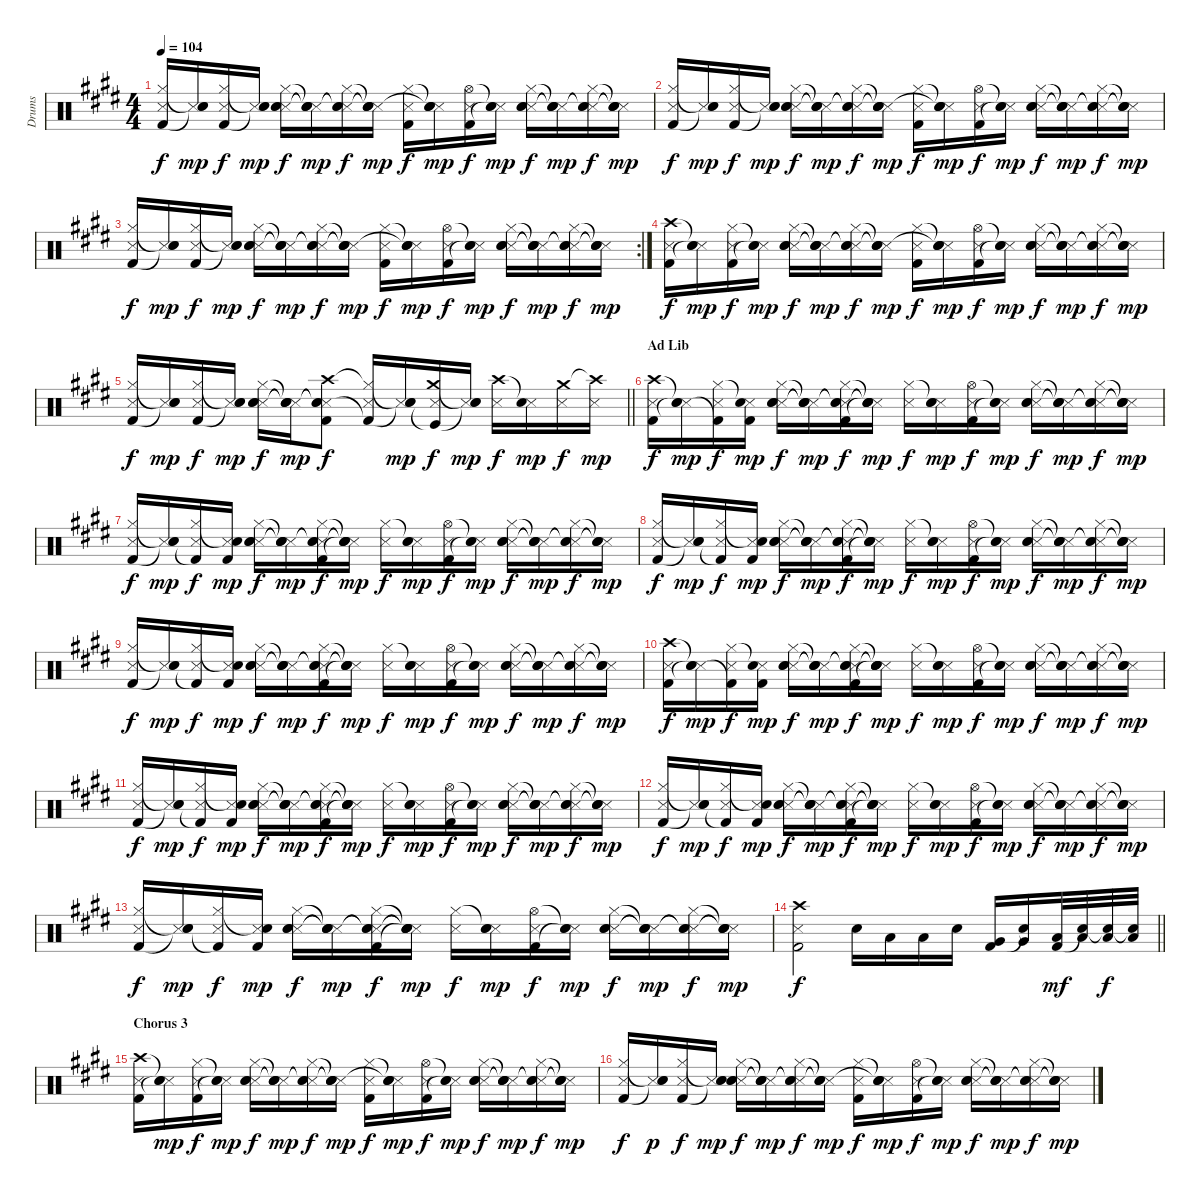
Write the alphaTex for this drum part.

\track ("Drums" "Drums") {instrument percussion}
\staff {score}
\articulation defaults
\ts (4 4)
\tempo 104
\clef neutral
\ks e
("Metronome (hit)" "Hi-Hat (closed)" "Kick (hit) 2").16{dy f} ("Metronome (hit)" "Snare (hit)"{t} "Snare (hit)"{t}).16{dy mp} ("Metronome (hit)" "Hi-Hat (closed)" "Kick (hit) 2").16{dy f} ("Metronome (hit)" "Snare (hit)"{t} "Snare (hit)"{t}).16{dy mp} ("Metronome (hit)" "Hi-Hat (closed)" "Hand Clap (hit)" "Electric Snare (hit)").16{dy f} ("Metronome (hit)" "Snare (hit)"{t} "Snare (hit)"{t} "Snare (hit)"{t}).16{dy mp} ("Metronome (hit)" "Hi-Hat (closed)" "Snare (hit)"{t} "Snare (hit)"{t}).16{dy f} ("Metronome (hit)" "Snare (hit)"{t} "Snare (hit)"{t} "Electric Snare (hit)"{t}).16{dy mp} ("Metronome (hit)" "Hi-Hat (closed)" "Kick (hit) 2").16{dy f} ("Metronome (hit)" "Snare (hit)"{t} "Electric Snare (hit)" "Snare (hit)"{t}).16{dy mp} ("Metronome (hit)" "Hi-Hat (open)" "Kick (hit) 2").16{dy f} ("Metronome (hit)" "Snare (hit)"{t} "Snare (hit)"{t}).16{dy mp} ("Metronome (hit)" "Hi-Hat (closed)" "Hand Clap (hit)" "Electric Snare (hit)").16{dy f} ("Metronome (hit)" "Snare (hit)"{t} "Snare (hit)"{t} "Snare (hit)"{t}).16{dy mp} ("Metronome (hit)" "Hi-Hat (closed)" "Snare (hit)"{t} "Snare (hit)"{t}).16{dy f} ("Metronome (hit)" "Snare (hit)"{t} "Snare (hit)"{t} "Snare (hit)"{t}).16{dy mp} |
("Metronome (hit)" "Hi-Hat (closed)" "Kick (hit) 2").16{dy f} ("Metronome (hit)" "Snare (hit)"{t} "Snare (hit)"{t}).16{dy mp} ("Metronome (hit)" "Hi-Hat (closed)" "Kick (hit) 2").16{dy f} ("Metronome (hit)" "Snare (hit)"{t} "Snare (hit)"{t}).16{dy mp} ("Metronome (hit)" "Hi-Hat (closed)" "Hand Clap (hit)" "Electric Snare (hit)").16{dy f} ("Metronome (hit)" "Snare (hit)"{t} "Snare (hit)"{t} "Snare (hit)"{t}).16{dy mp} ("Metronome (hit)" "Hi-Hat (closed)" "Snare (hit)"{t} "Snare (hit)"{t}).16{dy f} ("Metronome (hit)" "Snare (hit)"{t} "Snare (hit)"{t} "Snare (hit)"{t}).16{dy mp} ("Metronome (hit)" "Hi-Hat (closed)" "Kick (hit) 2").16{dy f} ("Metronome (hit)" "Snare (hit)"{t} "Electric Snare (hit)" "Snare (hit)"{t}).16{dy mp} ("Metronome (hit)" "Hi-Hat (open)" "Kick (hit) 2").16{dy f} ("Metronome (hit)" "Snare (hit)"{t} "Snare (hit)"{t}).16{dy mp} ("Metronome (hit)" "Hi-Hat (closed)" "Hand Clap (hit)" "Electric Snare (hit)").16{dy f} ("Metronome (hit)" "Snare (hit)"{t} "Snare (hit)"{t} "Snare (hit)"{t}).16{dy mp} ("Metronome (hit)" "Hi-Hat (closed)" "Snare (hit)"{t} "Snare (hit)"{t}).16{dy f} ("Metronome (hit)" "Snare (hit)"{t} "Snare (hit)"{t} "Snare (hit)"{t}).16{dy mp} |
\rc 2
("Metronome (hit)" "Hi-Hat (closed)" "Kick (hit) 2").16{dy f} ("Metronome (hit)" "Snare (hit)"{t} "Snare (hit)"{t}).16{dy mp} ("Metronome (hit)" "Hi-Hat (closed)" "Kick (hit) 2").16{dy f} ("Metronome (hit)" "Snare (hit)"{t} "Snare (hit)"{t}).16{dy mp} ("Metronome (hit)" "Hi-Hat (closed)" "Hand Clap (hit)" "Electric Snare (hit)").16{dy f} ("Metronome (hit)" "Snare (hit)"{t} "Snare (hit)"{t} "Snare (hit)"{t}).16{dy mp} ("Metronome (hit)" "Hi-Hat (closed)" "Snare (hit)"{t} "Snare (hit)"{t}).16{dy f} ("Metronome (hit)" "Snare (hit)"{t} "Snare (hit)"{t} "Snare (hit)"{t}).16{dy mp} ("Metronome (hit)" "Hi-Hat (closed)" "Kick (hit) 2").16{dy f} ("Metronome (hit)" "Snare (hit)"{t} "Electric Snare (hit)" "Snare (hit)"{t}).16{dy mp} ("Metronome (hit)" "Hi-Hat (open)" "Kick (hit) 2").16{dy f} ("Metronome (hit)" "Snare (hit)"{t} "Snare (hit)"{t}).16{dy mp} ("Metronome (hit)" "Hi-Hat (closed)" "Hand Clap (hit)" "Electric Snare (hit)").16{dy f} ("Metronome (hit)" "Snare (hit)"{t} "Snare (hit)"{t} "Snare (hit)"{t}).16{dy mp} ("Metronome (hit)" "Hi-Hat (closed)" "Snare (hit)"{t} "Snare (hit)"{t}).16{dy f} ("Metronome (hit)" "Snare (hit)"{t} "Snare (hit)"{t} "Snare (hit)"{t}).16{dy mp} |
("Metronome (hit)" "Crash high (hit)" "Kick (hit) 2").16{dy f} ("Metronome (hit)" "Snare (hit)"{t} "Snare (hit)"{t}).16{dy mp} ("Metronome (hit)" "Hi-Hat (closed)" "Kick (hit) 2").16{dy f} ("Metronome (hit)" "Snare (hit)"{t} "Snare (hit)"{t}).16{dy mp} ("Metronome (hit)" "Hi-Hat (closed)" "Hand Clap (hit)" "Electric Snare (hit)").16{dy f} ("Metronome (hit)" "Snare (hit)"{t} "Snare (hit)"{t} "Snare (hit)"{t}).16{dy mp} ("Metronome (hit)" "Hi-Hat (closed)" "Snare (hit)"{t} "Snare (hit)"{t}).16{dy f} ("Metronome (hit)" "Snare (hit)"{t} "Snare (hit)"{t} "Snare (hit)"{t}).16{dy mp} ("Metronome (hit)" "Hi-Hat (closed)" "Kick (hit) 2").16{dy f} ("Metronome (hit)" "Snare (hit)"{t} "Electric Snare (hit)" "Snare (hit)"{t}).16{dy mp} ("Metronome (hit)" "Hi-Hat (open)" "Kick (hit) 2").16{dy f} ("Metronome (hit)" "Snare (hit)"{t} "Snare (hit)"{t}).16{dy mp} ("Metronome (hit)" "Hi-Hat (closed)" "Hand Clap (hit)" "Electric Snare (hit)").16{dy f} ("Metronome (hit)" "Snare (hit)"{t} "Snare (hit)"{t} "Snare (hit)"{t}).16{dy mp} ("Metronome (hit)" "Hi-Hat (closed)" "Snare (hit)"{t} "Snare (hit)"{t}).16{dy f} ("Metronome (hit)" "Snare (hit)"{t} "Snare (hit)"{t} "Snare (hit)"{t}).16{dy mp} |
\barLineRight lightlight
("Metronome (hit)" "Hi-Hat (closed)" "Kick (hit) 2").16{dy f} ("Metronome (hit)" "Snare (hit)"{t} "Snare (hit)"{t}).16{dy mp} ("Metronome (hit)" "Hi-Hat (closed)" "Kick (hit) 2").16{dy f} ("Metronome (hit)" "Snare (hit)"{t} "Snare (hit)"{t}).16{dy mp} ("Metronome (hit)" "Hi-Hat (closed)" "Hand Clap (hit)" "Electric Snare (hit)").16{dy f} ("Metronome (hit)" "Snare (hit)"{t} "Snare (hit)"{t} "Snare (hit)"{t}).16{dy mp} ("Metronome (hit)" "Crash high (hit)" "Snare (hit)"{t} "Snare (hit)"{t} "Kick (hit) 2").8{dy f} ("Metronome (hit)" "Hi-Hat (closed)"{t} "Kick (hit) 2"{t}).16 ("Metronome (hit)" "Snare (hit)"{t} "Snare (hit)"{t}).16{dy mp} ("Metronome (hit)" "Crash medium (hit)" "Kick (hit)"{t}).16{dy f} ("Metronome (hit)" "Snare (hit)"{t} "Snare (hit)"{t}).16{dy mp} ("Metronome (hit)" "Crash high (hit)").16{dy f} ("Metronome (hit)" "Snare (hit)"{t}).16{dy mp} ("Metronome (hit)" "Crash medium (hit)").16{dy f} ("Metronome (hit)" "Crash high (hit)"{t}).16{dy mp} |
\section ("" "Ad Lib")
("Metronome (hit)" "Crash high (hit)" "Kick (hit) 2").16{dy f} ("Metronome (hit)" "Snare (hit)"{t} "Snare (hit)"{t}).16{dy mp} ("Metronome (hit)" "Hi-Hat (closed)" "Kick (hit) 2"{t}).16{dy f} ("Metronome (hit)" "Snare (hit)"{t} "Kick (hit) 2").16{dy mp} ("Metronome (hit)" "Hi-Hat (closed)" "Hand Clap (hit)" "Electric Snare (hit)").16{dy f} ("Metronome (hit)" "Snare (hit)"{t} "Snare (hit)"{t} "Snare (hit)"{t}).16{dy mp} ("Metronome (hit)" "Hi-Hat (closed)" "Snare (hit)"{t} "Snare (hit)"{t} "Kick (hit) 2").16{dy f} ("Metronome (hit)" "Snare (hit)"{t} "Snare (hit)"{t} "Electric Snare (hit)"{t} "Snare (hit)"{t}).16{dy mp} ("Metronome (hit)" "Hi-Hat (closed)").16{dy f} ("Metronome (hit)" "Snare (hit)"{t} "Electric Snare (hit)").16{dy mp} ("Metronome (hit)" "Hi-Hat (open)" "Kick (hit) 2").16{dy f} ("Metronome (hit)" "Snare (hit)"{t} "Snare (hit)"{t}).16{dy mp} ("Metronome (hit)" "Hi-Hat (closed)" "Hand Clap (hit)" "Electric Snare (hit)").16{dy f} ("Metronome (hit)" "Snare (hit)"{t} "Snare (hit)"{t} "Snare (hit)"{t}).16{dy mp} ("Metronome (hit)" "Hi-Hat (closed)" "Snare (hit)"{t} "Snare (hit)"{t}).16{dy f} ("Metronome (hit)" "Snare (hit)"{t} "Snare (hit)"{t} "Snare (hit)"{t}).16{dy mp} |
("Metronome (hit)" "Hi-Hat (closed)" "Kick (hit) 2").16{dy f} ("Metronome (hit)" "Snare (hit)"{t} "Snare (hit)"{t}).16{dy mp} ("Metronome (hit)" "Hi-Hat (closed)" "Kick (hit) 2"{t}).16{dy f} ("Metronome (hit)" "Snare (hit)"{t} "Kick (hit) 2").16{dy mp} ("Metronome (hit)" "Hi-Hat (closed)" "Hand Clap (hit)" "Electric Snare (hit)").16{dy f} ("Metronome (hit)" "Snare (hit)"{t} "Snare (hit)"{t} "Snare (hit)"{t}).16{dy mp} ("Metronome (hit)" "Hi-Hat (closed)" "Snare (hit)"{t} "Snare (hit)"{t} "Kick (hit) 2").16{dy f} ("Metronome (hit)" "Snare (hit)"{t} "Snare (hit)"{t} "Electric Snare (hit)"{t} "Snare (hit)"{t}).16{dy mp} ("Metronome (hit)" "Hi-Hat (closed)").16{dy f} ("Metronome (hit)" "Snare (hit)"{t} "Electric Snare (hit)").16{dy mp} ("Metronome (hit)" "Hi-Hat (open)" "Kick (hit) 2").16{dy f} ("Metronome (hit)" "Snare (hit)"{t} "Snare (hit)"{t}).16{dy mp} ("Metronome (hit)" "Hi-Hat (closed)" "Hand Clap (hit)" "Electric Snare (hit)").16{dy f} ("Metronome (hit)" "Snare (hit)"{t} "Snare (hit)"{t} "Snare (hit)"{t}).16{dy mp} ("Metronome (hit)" "Hi-Hat (closed)" "Snare (hit)"{t} "Snare (hit)"{t}).16{dy f} ("Metronome (hit)" "Snare (hit)"{t} "Snare (hit)"{t} "Snare (hit)"{t}).16{dy mp} |
("Metronome (hit)" "Hi-Hat (closed)" "Kick (hit) 2").16{dy f} ("Metronome (hit)" "Snare (hit)"{t} "Snare (hit)"{t}).16{dy mp} ("Metronome (hit)" "Hi-Hat (closed)" "Kick (hit) 2"{t}).16{dy f} ("Metronome (hit)" "Snare (hit)"{t} "Kick (hit) 2").16{dy mp} ("Metronome (hit)" "Hi-Hat (closed)" "Hand Clap (hit)" "Electric Snare (hit)").16{dy f} ("Metronome (hit)" "Snare (hit)"{t} "Snare (hit)"{t} "Snare (hit)"{t}).16{dy mp} ("Metronome (hit)" "Hi-Hat (closed)" "Snare (hit)"{t} "Snare (hit)"{t} "Kick (hit) 2").16{dy f} ("Metronome (hit)" "Snare (hit)"{t} "Snare (hit)"{t} "Electric Snare (hit)"{t} "Snare (hit)"{t}).16{dy mp} ("Metronome (hit)" "Hi-Hat (closed)").16{dy f} ("Metronome (hit)" "Snare (hit)"{t} "Electric Snare (hit)").16{dy mp} ("Metronome (hit)" "Hi-Hat (open)" "Kick (hit) 2").16{dy f} ("Metronome (hit)" "Snare (hit)"{t} "Snare (hit)"{t}).16{dy mp} ("Metronome (hit)" "Hi-Hat (closed)" "Hand Clap (hit)" "Electric Snare (hit)").16{dy f} ("Metronome (hit)" "Snare (hit)"{t} "Snare (hit)"{t} "Snare (hit)"{t}).16{dy mp} ("Metronome (hit)" "Hi-Hat (closed)" "Snare (hit)"{t} "Snare (hit)"{t}).16{dy f} ("Metronome (hit)" "Snare (hit)"{t} "Snare (hit)"{t} "Snare (hit)"{t}).16{dy mp} |
("Metronome (hit)" "Hi-Hat (closed)" "Kick (hit) 2").16{dy f} ("Metronome (hit)" "Snare (hit)"{t} "Snare (hit)"{t}).16{dy mp} ("Metronome (hit)" "Hi-Hat (closed)" "Kick (hit) 2"{t}).16{dy f} ("Metronome (hit)" "Snare (hit)"{t} "Kick (hit) 2").16{dy mp} ("Metronome (hit)" "Hi-Hat (closed)" "Hand Clap (hit)" "Electric Snare (hit)").16{dy f} ("Metronome (hit)" "Snare (hit)"{t} "Snare (hit)"{t} "Snare (hit)"{t}).16{dy mp} ("Metronome (hit)" "Hi-Hat (closed)" "Snare (hit)"{t} "Snare (hit)"{t} "Kick (hit) 2").16{dy f} ("Metronome (hit)" "Snare (hit)"{t} "Snare (hit)"{t} "Electric Snare (hit)"{t} "Snare (hit)"{t}).16{dy mp} ("Metronome (hit)" "Hi-Hat (closed)").16{dy f} ("Metronome (hit)" "Snare (hit)"{t} "Electric Snare (hit)").16{dy mp} ("Metronome (hit)" "Hi-Hat (open)" "Kick (hit) 2").16{dy f} ("Metronome (hit)" "Snare (hit)"{t} "Snare (hit)"{t}).16{dy mp} ("Metronome (hit)" "Hi-Hat (closed)" "Hand Clap (hit)" "Electric Snare (hit)").16{dy f} ("Metronome (hit)" "Snare (hit)"{t} "Snare (hit)"{t} "Snare (hit)"{t}).16{dy mp} ("Metronome (hit)" "Hi-Hat (closed)" "Snare (hit)"{t} "Snare (hit)"{t}).16{dy f} ("Metronome (hit)" "Snare (hit)"{t} "Snare (hit)"{t} "Snare (hit)"{t}).16{dy mp} |
("Metronome (hit)" "Crash high (hit)" "Kick (hit) 2").16{dy f} ("Metronome (hit)" "Snare (hit)"{t} "Snare (hit)"{t}).16{dy mp} ("Metronome (hit)" "Hi-Hat (closed)" "Kick (hit) 2"{t}).16{dy f} ("Metronome (hit)" "Snare (hit)"{t} "Kick (hit) 2").16{dy mp} ("Metronome (hit)" "Hi-Hat (closed)" "Hand Clap (hit)" "Electric Snare (hit)").16{dy f} ("Metronome (hit)" "Snare (hit)"{t} "Snare (hit)"{t} "Snare (hit)"{t}).16{dy mp} ("Metronome (hit)" "Hi-Hat (closed)" "Snare (hit)"{t} "Snare (hit)"{t} "Kick (hit) 2").16{dy f} ("Metronome (hit)" "Snare (hit)"{t} "Snare (hit)"{t} "Electric Snare (hit)"{t} "Snare (hit)"{t}).16{dy mp} ("Metronome (hit)" "Hi-Hat (closed)").16{dy f} ("Metronome (hit)" "Snare (hit)"{t} "Electric Snare (hit)").16{dy mp} ("Metronome (hit)" "Hi-Hat (open)" "Kick (hit) 2").16{dy f} ("Metronome (hit)" "Snare (hit)"{t} "Snare (hit)"{t}).16{dy mp} ("Metronome (hit)" "Hi-Hat (closed)" "Hand Clap (hit)" "Electric Snare (hit)").16{dy f} ("Metronome (hit)" "Snare (hit)"{t} "Snare (hit)"{t} "Snare (hit)"{t}).16{dy mp} ("Metronome (hit)" "Hi-Hat (closed)" "Snare (hit)"{t} "Snare (hit)"{t}).16{dy f} ("Metronome (hit)" "Snare (hit)"{t} "Snare (hit)"{t} "Snare (hit)"{t}).16{dy mp} |
("Metronome (hit)" "Hi-Hat (closed)" "Kick (hit) 2").16{dy f} ("Metronome (hit)" "Snare (hit)"{t} "Snare (hit)"{t}).16{dy mp} ("Metronome (hit)" "Hi-Hat (closed)" "Kick (hit) 2"{t}).16{dy f} ("Metronome (hit)" "Snare (hit)"{t} "Kick (hit) 2").16{dy mp} ("Metronome (hit)" "Hi-Hat (closed)" "Hand Clap (hit)" "Electric Snare (hit)").16{dy f} ("Metronome (hit)" "Snare (hit)"{t} "Snare (hit)"{t} "Snare (hit)"{t}).16{dy mp} ("Metronome (hit)" "Hi-Hat (closed)" "Snare (hit)"{t} "Snare (hit)"{t} "Kick (hit) 2").16{dy f} ("Metronome (hit)" "Snare (hit)"{t} "Snare (hit)"{t} "Electric Snare (hit)"{t} "Snare (hit)"{t}).16{dy mp} ("Metronome (hit)" "Hi-Hat (closed)").16{dy f} ("Metronome (hit)" "Snare (hit)"{t} "Electric Snare (hit)").16{dy mp} ("Metronome (hit)" "Hi-Hat (open)" "Kick (hit) 2").16{dy f} ("Metronome (hit)" "Snare (hit)"{t} "Snare (hit)"{t}).16{dy mp} ("Metronome (hit)" "Hi-Hat (closed)" "Hand Clap (hit)" "Electric Snare (hit)").16{dy f} ("Metronome (hit)" "Snare (hit)"{t} "Snare (hit)"{t} "Snare (hit)"{t}).16{dy mp} ("Metronome (hit)" "Hi-Hat (closed)" "Snare (hit)"{t} "Snare (hit)"{t}).16{dy f} ("Metronome (hit)" "Snare (hit)"{t} "Snare (hit)"{t} "Snare (hit)"{t}).16{dy mp} |
("Metronome (hit)" "Hi-Hat (closed)" "Kick (hit) 2").16{dy f} ("Metronome (hit)" "Snare (hit)"{t} "Snare (hit)"{t}).16{dy mp} ("Metronome (hit)" "Hi-Hat (closed)" "Kick (hit) 2"{t}).16{dy f} ("Metronome (hit)" "Snare (hit)"{t} "Kick (hit) 2").16{dy mp} ("Metronome (hit)" "Hi-Hat (closed)" "Hand Clap (hit)" "Electric Snare (hit)").16{dy f} ("Metronome (hit)" "Snare (hit)"{t} "Snare (hit)"{t} "Snare (hit)"{t}).16{dy mp} ("Metronome (hit)" "Hi-Hat (closed)" "Snare (hit)"{t} "Snare (hit)"{t} "Kick (hit) 2").16{dy f} ("Metronome (hit)" "Snare (hit)"{t} "Snare (hit)"{t} "Electric Snare (hit)"{t} "Snare (hit)"{t}).16{dy mp} ("Metronome (hit)" "Hi-Hat (closed)").16{dy f} ("Metronome (hit)" "Snare (hit)"{t} "Electric Snare (hit)").16{dy mp} ("Metronome (hit)" "Hi-Hat (open)" "Kick (hit) 2").16{dy f} ("Metronome (hit)" "Snare (hit)"{t} "Snare (hit)"{t}).16{dy mp} ("Metronome (hit)" "Hi-Hat (closed)" "Hand Clap (hit)" "Electric Snare (hit)").16{dy f} ("Metronome (hit)" "Snare (hit)"{t} "Snare (hit)"{t} "Snare (hit)"{t}).16{dy mp} ("Metronome (hit)" "Hi-Hat (closed)" "Snare (hit)"{t} "Snare (hit)"{t}).16{dy f} ("Metronome (hit)" "Snare (hit)"{t} "Snare (hit)"{t} "Snare (hit)"{t}).16{dy mp} |
("Metronome (hit)" "Hi-Hat (closed)" "Kick (hit) 2").16{dy f} ("Metronome (hit)" "Snare (hit)"{t} "Snare (hit)"{t}).16{dy mp} ("Metronome (hit)" "Hi-Hat (closed)" "Kick (hit) 2"{t}).16{dy f} ("Metronome (hit)" "Snare (hit)"{t} "Kick (hit) 2").16{dy mp} ("Metronome (hit)" "Hi-Hat (closed)" "Hand Clap (hit)" "Electric Snare (hit)").16{dy f} ("Metronome (hit)" "Snare (hit)"{t} "Snare (hit)"{t} "Snare (hit)"{t}).16{dy mp} ("Metronome (hit)" "Hi-Hat (closed)" "Snare (hit)"{t} "Snare (hit)"{t} "Kick (hit) 2").16{dy f} ("Metronome (hit)" "Snare (hit)"{t} "Snare (hit)"{t} "Electric Snare (hit)"{t} "Snare (hit)"{t}).16{dy mp} ("Metronome (hit)" "Hi-Hat (closed)").16{dy f} ("Metronome (hit)" "Snare (hit)"{t} "Electric Snare (hit)").16{dy mp} ("Metronome (hit)" "Hi-Hat (open)" "Kick (hit) 2").16{dy f} ("Metronome (hit)" "Snare (hit)"{t} "Snare (hit)"{t}).16{dy mp} ("Metronome (hit)" "Hi-Hat (closed)" "Hand Clap (hit)" "Electric Snare (hit)").16{dy f} ("Metronome (hit)" "Snare (hit)"{t} "Snare (hit)"{t} "Snare (hit)"{t}).16{dy mp} ("Metronome (hit)" "Hi-Hat (closed)" "Snare (hit)"{t} "Snare (hit)"{t}).16{dy f} ("Metronome (hit)" "Snare (hit)"{t} "Snare (hit)"{t} "Snare (hit)"{t}).16{dy mp} |
\barLineRight lightlight
("Metronome (hit)" "Crash high (hit)" "Kick (hit) 2").2{dy f} "Electric Snare (hit)".16 "Low Tom (hit)".16 "Low Tom (hit)".16 "Electric Snare (hit)".16 ("Very Low Tom (hit)" "Kick (hit) 2").16 ("Very Low Tom (hit)" "Snare (hit)"{t}).16 ("Low Tom (hit)" "Kick (hit) 2").32{dy mf} ("Low Tom (hit)" "Snare (hit)"{t}).32 ("Low Tom (hit)" "Snare (hit)"{t}).32{dy f} ("Low Tom (hit)" "Snare (hit)"{t}).32 |
\section ("" "Chorus 3")
("Metronome (hit)" "Crash high (hit)" "Kick (hit) 2").16 ("Metronome (hit)" "Snare (hit)"{t} "Snare (hit)"{t}).16{dy mp} ("Metronome (hit)" "Hi-Hat (closed)" "Kick (hit) 2").16{dy f} ("Metronome (hit)" "Snare (hit)"{t} "Snare (hit)"{t}).16{dy mp} ("Metronome (hit)" "Hi-Hat (closed)" "Hand Clap (hit)" "Electric Snare (hit)").16{dy f} ("Metronome (hit)" "Snare (hit)"{t} "Snare (hit)"{t} "Snare (hit)"{t}).16{dy mp} ("Metronome (hit)" "Hi-Hat (closed)" "Snare (hit)"{t} "Snare (hit)"{t}).16{dy f} ("Metronome (hit)" "Snare (hit)"{t} "Snare (hit)"{t} "Electric Snare (hit)"{t}).16{dy mp} ("Metronome (hit)" "Hi-Hat (closed)" "Kick (hit) 2").16{dy f} ("Metronome (hit)" "Snare (hit)"{t} "Electric Snare (hit)" "Snare (hit)"{t}).16{dy mp} ("Metronome (hit)" "Hi-Hat (open)" "Kick (hit) 2").16{dy f} ("Metronome (hit)" "Snare (hit)"{t} "Snare (hit)"{t}).16{dy mp} ("Metronome (hit)" "Hi-Hat (closed)" "Hand Clap (hit)" "Electric Snare (hit)").16{dy f} ("Metronome (hit)" "Snare (hit)"{t} "Snare (hit)"{t} "Snare (hit)"{t}).16{dy mp} ("Metronome (hit)" "Hi-Hat (closed)" "Snare (hit)"{t} "Snare (hit)"{t}).16{dy f} ("Metronome (hit)" "Snare (hit)"{t} "Snare (hit)"{t} "Snare (hit)"{t}).16{dy mp} |
("Metronome (hit)" "Hi-Hat (closed)" "Kick (hit) 2").16{dy f} ("Metronome (hit)" "Snare (hit)"{t} "Snare (hit)"{t}).16{dy p} ("Metronome (hit)" "Hi-Hat (closed)" "Kick (hit) 2").16{dy f} ("Metronome (hit)" "Snare (hit)"{t} "Snare (hit)"{t}).16{dy mp} ("Metronome (hit)" "Hi-Hat (closed)" "Hand Clap (hit)" "Electric Snare (hit)").16{dy f} ("Metronome (hit)" "Snare (hit)"{t} "Snare (hit)"{t} "Snare (hit)"{t}).16{dy mp} ("Metronome (hit)" "Hi-Hat (closed)" "Snare (hit)"{t} "Snare (hit)"{t}).16{dy f} ("Metronome (hit)" "Snare (hit)"{t} "Snare (hit)"{t} "Electric Snare (hit)"{t}).16{dy mp} ("Metronome (hit)" "Hi-Hat (closed)" "Kick (hit) 2").16{dy f} ("Metronome (hit)" "Snare (hit)"{t} "Electric Snare (hit)" "Snare (hit)"{t}).16{dy mp} ("Metronome (hit)" "Hi-Hat (open)" "Kick (hit) 2").16{dy f} ("Metronome (hit)" "Snare (hit)"{t} "Snare (hit)"{t}).16{dy mp} ("Metronome (hit)" "Hi-Hat (closed)" "Hand Clap (hit)" "Electric Snare (hit)").16{dy f} ("Metronome (hit)" "Snare (hit)"{t} "Snare (hit)"{t} "Snare (hit)"{t}).16{dy mp} ("Metronome (hit)" "Hi-Hat (closed)" "Snare (hit)"{t} "Snare (hit)"{t}).16{dy f} ("Metronome (hit)" "Snare (hit)"{t} "Snare (hit)"{t} "Snare (hit)"{t}).16{dy mp}
